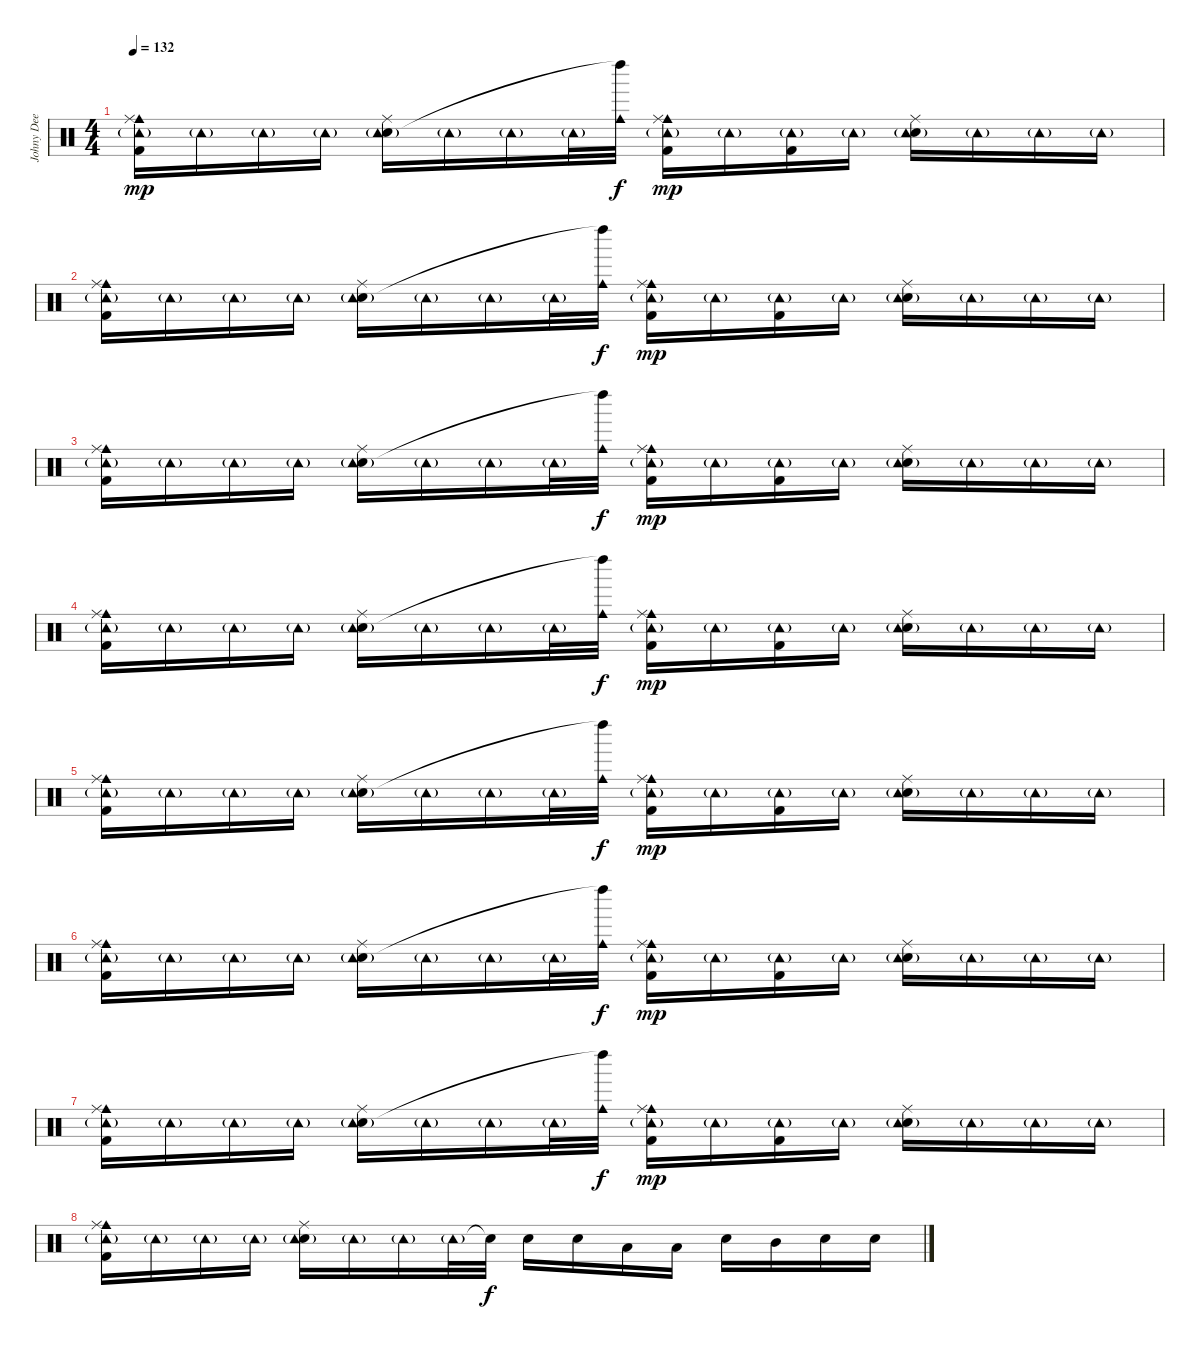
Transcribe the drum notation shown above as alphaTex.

\track ("Johny Dee" "Johny Dee") {instrument percussion}
\staff {score}
\articulation defaults
\ts (4 4)
\tempo 132
\clef neutral
\ks c
("Cowbell medium (hit)" "Ride (middle)" "Tambourine (hit)"{g} "Kick (hit) 2").16{dy mp} "Tambourine (hit)"{g}.16 "Tambourine (hit)"{g}.16 "Tambourine (hit)"{g}.16 ("Ride (middle)" "Snare (hit) 2" "Tambourine (hit)"{g}).16 "Tambourine (hit)"{g}.16 "Tambourine (hit)"{g}.16 "Tambourine (hit)"{g}.32 ("Cowbell medium (hit)" "Left Maraca (hit)"{t}).32{dy f} ("Cowbell medium (hit)" "Ride (middle)" "Tambourine (hit)"{g} "Kick (hit) 2").16{dy mp} "Tambourine (hit)"{g}.16 ("Tambourine (hit)"{g} "Kick (hit) 2").16 "Tambourine (hit)"{g}.16 ("Ride (middle)" "Snare (hit) 2" "Tambourine (hit)"{g}).16 "Tambourine (hit)"{g}.16 "Tambourine (hit)"{g}.16 "Tambourine (hit)"{g}.16 |
("Cowbell medium (hit)" "Ride (middle)" "Tambourine (hit)"{g} "Kick (hit) 2").16 "Tambourine (hit)"{g}.16 "Tambourine (hit)"{g}.16 "Tambourine (hit)"{g}.16 ("Ride (middle)" "Snare (hit) 2" "Tambourine (hit)"{g}).16 "Tambourine (hit)"{g}.16 "Tambourine (hit)"{g}.16 "Tambourine (hit)"{g}.32 ("Cowbell medium (hit)" "Left Maraca (hit)"{t}).32{dy f} ("Cowbell medium (hit)" "Ride (middle)" "Tambourine (hit)"{g} "Kick (hit) 2").16{dy mp} "Tambourine (hit)"{g}.16 ("Tambourine (hit)"{g} "Kick (hit) 2").16 "Tambourine (hit)"{g}.16 ("Ride (middle)" "Snare (hit) 2" "Tambourine (hit)"{g}).16 "Tambourine (hit)"{g}.16 "Tambourine (hit)"{g}.16 "Tambourine (hit)"{g}.16 |
("Cowbell medium (hit)" "Ride (middle)" "Tambourine (hit)"{g} "Kick (hit) 2").16 "Tambourine (hit)"{g}.16 "Tambourine (hit)"{g}.16 "Tambourine (hit)"{g}.16 ("Ride (middle)" "Snare (hit) 2" "Tambourine (hit)"{g}).16 "Tambourine (hit)"{g}.16 "Tambourine (hit)"{g}.16 "Tambourine (hit)"{g}.32 ("Cowbell medium (hit)" "Left Maraca (hit)"{t}).32{dy f} ("Cowbell medium (hit)" "Ride (middle)" "Tambourine (hit)"{g} "Kick (hit) 2").16{dy mp} "Tambourine (hit)"{g}.16 ("Tambourine (hit)"{g} "Kick (hit) 2").16 "Tambourine (hit)"{g}.16 ("Ride (middle)" "Snare (hit) 2" "Tambourine (hit)"{g}).16 "Tambourine (hit)"{g}.16 "Tambourine (hit)"{g}.16 "Tambourine (hit)"{g}.16 |
("Cowbell medium (hit)" "Ride (middle)" "Tambourine (hit)"{g} "Kick (hit) 2").16 "Tambourine (hit)"{g}.16 "Tambourine (hit)"{g}.16 "Tambourine (hit)"{g}.16 ("Ride (middle)" "Snare (hit) 2" "Tambourine (hit)"{g}).16 "Tambourine (hit)"{g}.16 "Tambourine (hit)"{g}.16 "Tambourine (hit)"{g}.32 ("Cowbell medium (hit)" "Left Maraca (hit)"{t}).32{dy f} ("Cowbell medium (hit)" "Ride (middle)" "Tambourine (hit)"{g} "Kick (hit) 2").16{dy mp} "Tambourine (hit)"{g}.16 ("Tambourine (hit)"{g} "Kick (hit) 2").16 "Tambourine (hit)"{g}.16 ("Ride (middle)" "Snare (hit) 2" "Tambourine (hit)"{g}).16 "Tambourine (hit)"{g}.16 "Tambourine (hit)"{g}.16 "Tambourine (hit)"{g}.16 |
("Cowbell medium (hit)" "Ride (middle)" "Tambourine (hit)"{g} "Kick (hit) 2").16 "Tambourine (hit)"{g}.16 "Tambourine (hit)"{g}.16 "Tambourine (hit)"{g}.16 ("Ride (middle)" "Snare (hit) 2" "Tambourine (hit)"{g}).16 "Tambourine (hit)"{g}.16 "Tambourine (hit)"{g}.16 "Tambourine (hit)"{g}.32 ("Cowbell medium (hit)" "Left Maraca (hit)"{t}).32{dy f} ("Cowbell medium (hit)" "Ride (middle)" "Tambourine (hit)"{g} "Kick (hit) 2").16{dy mp} "Tambourine (hit)"{g}.16 ("Tambourine (hit)"{g} "Kick (hit) 2").16 "Tambourine (hit)"{g}.16 ("Ride (middle)" "Snare (hit) 2" "Tambourine (hit)"{g}).16 "Tambourine (hit)"{g}.16 "Tambourine (hit)"{g}.16 "Tambourine (hit)"{g}.16 |
("Cowbell medium (hit)" "Ride (middle)" "Tambourine (hit)"{g} "Kick (hit) 2").16 "Tambourine (hit)"{g}.16 "Tambourine (hit)"{g}.16 "Tambourine (hit)"{g}.16 ("Ride (middle)" "Snare (hit) 2" "Tambourine (hit)"{g}).16 "Tambourine (hit)"{g}.16 "Tambourine (hit)"{g}.16 "Tambourine (hit)"{g}.32 ("Cowbell medium (hit)" "Left Maraca (hit)"{t}).32{dy f} ("Cowbell medium (hit)" "Ride (middle)" "Tambourine (hit)"{g} "Kick (hit) 2").16{dy mp} "Tambourine (hit)"{g}.16 ("Tambourine (hit)"{g} "Kick (hit) 2").16 "Tambourine (hit)"{g}.16 ("Ride (middle)" "Snare (hit) 2" "Tambourine (hit)"{g}).16 "Tambourine (hit)"{g}.16 "Tambourine (hit)"{g}.16 "Tambourine (hit)"{g}.16 |
("Cowbell medium (hit)" "Ride (middle)" "Tambourine (hit)"{g} "Kick (hit) 2").16 "Tambourine (hit)"{g}.16 "Tambourine (hit)"{g}.16 "Tambourine (hit)"{g}.16 ("Ride (middle)" "Snare (hit) 2" "Tambourine (hit)"{g}).16 "Tambourine (hit)"{g}.16 "Tambourine (hit)"{g}.16 "Tambourine (hit)"{g}.32 ("Cowbell medium (hit)" "Left Maraca (hit)"{t}).32{dy f} ("Cowbell medium (hit)" "Ride (middle)" "Tambourine (hit)"{g} "Kick (hit) 2").16{dy mp} "Tambourine (hit)"{g}.16 ("Tambourine (hit)"{g} "Kick (hit) 2").16 "Tambourine (hit)"{g}.16 ("Ride (middle)" "Snare (hit) 2" "Tambourine (hit)"{g}).16 "Tambourine (hit)"{g}.16 "Tambourine (hit)"{g}.16 "Tambourine (hit)"{g}.16 |
("Cowbell medium (hit)" "Ride (middle)" "Tambourine (hit)"{g} "Kick (hit) 2").16 "Tambourine (hit)"{g}.16 "Tambourine (hit)"{g}.16 "Tambourine (hit)"{g}.16 ("Ride (middle)" "Snare (hit) 2" "Tambourine (hit)"{g}).16 "Tambourine (hit)"{g}.16 "Tambourine (hit)"{g}.16 "Tambourine (hit)"{g}.32 "Snare (hit)"{t}.32{dy f} "Snare (hit) 2".16 "Snare (hit) 2".16 "Low Tom (hit)".16 "Low Tom (hit)".16 "Snare (hit) 2".16 "Mid Tom (hit)".16 "Snare (hit) 2".16 "Snare (hit) 2".16
